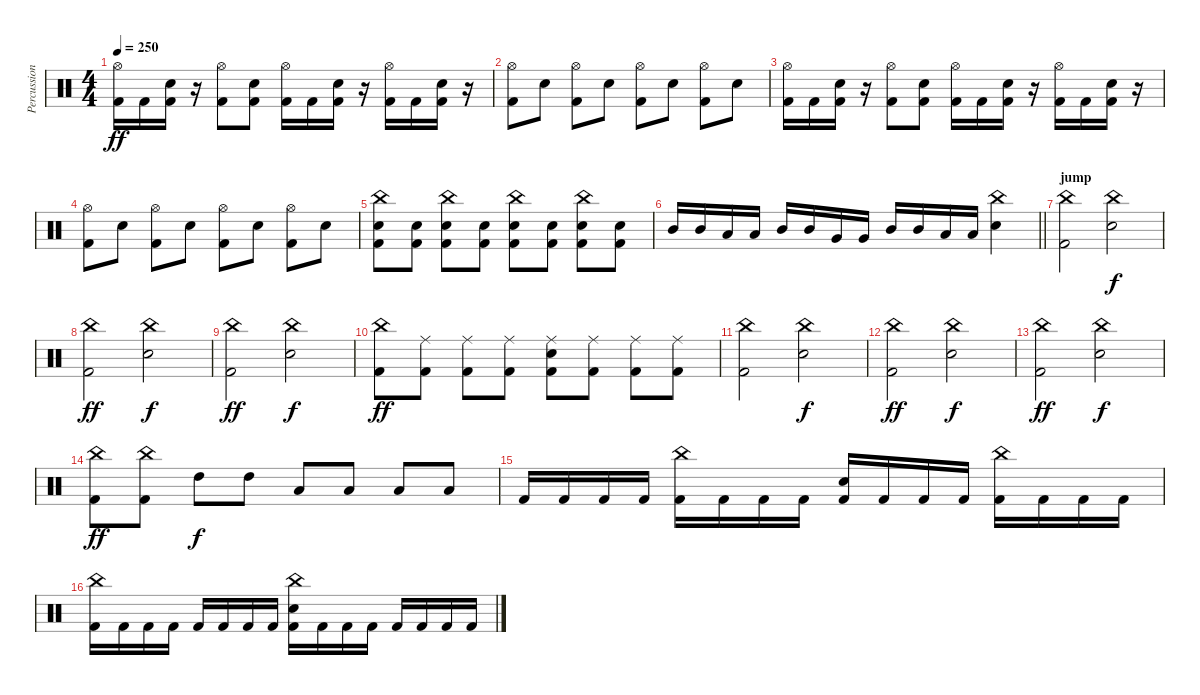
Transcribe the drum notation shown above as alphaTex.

\track ("Percussions" "Percussion") {instrument percussion}
\staff {score}
\articulation defaults
\ts (4 4)
\tempo 250
\clef neutral
\ks c
("Hi-Hat (open)" "Kick (hit) 2").16{dy ff} "Kick (hit) 2".16 ("Electric Snare (hit)" "Kick (hit) 2").16 r.16 ("Hi-Hat (open)" "Kick (hit) 2").8 ("Electric Snare (hit)" "Kick (hit) 2").8 ("Hi-Hat (open)" "Kick (hit) 2").16 "Kick (hit) 2".16 ("Electric Snare (hit)" "Kick (hit) 2").16 r.16 ("Hi-Hat (open)" "Kick (hit) 2").16 "Kick (hit) 2".16 ("Electric Snare (hit)" "Kick (hit) 2").16 r.16 |
("Hi-Hat (open)" "Kick (hit) 2").8 "Electric Snare (hit)".8 ("Hi-Hat (open)" "Kick (hit) 2").8 "Electric Snare (hit)".8 ("Hi-Hat (open)" "Kick (hit) 2").8 "Electric Snare (hit)".8 ("Hi-Hat (open)" "Kick (hit) 2").8 "Electric Snare (hit)".8 |
("Hi-Hat (open)" "Kick (hit) 2").16 "Kick (hit) 2".16 ("Electric Snare (hit)" "Kick (hit) 2").16 r.16 ("Hi-Hat (open)" "Kick (hit) 2").8 ("Electric Snare (hit)" "Kick (hit) 2").8 ("Hi-Hat (open)" "Kick (hit) 2").16 "Kick (hit) 2".16 ("Electric Snare (hit)" "Kick (hit) 2").16 r.16 ("Hi-Hat (open)" "Kick (hit) 2").16 "Kick (hit) 2".16 ("Electric Snare (hit)" "Kick (hit) 2").16 r.16 |
("Hi-Hat (open)" "Kick (hit) 2").8 "Electric Snare (hit)".8 ("Hi-Hat (open)" "Kick (hit) 2").8 "Electric Snare (hit)".8 ("Hi-Hat (open)" "Kick (hit) 2").8 "Electric Snare (hit)".8 ("Hi-Hat (open)" "Kick (hit) 2").8 "Electric Snare (hit)".8 |
("China (hit)" "Electric Snare (hit)" "Kick (hit) 2").8 ("Electric Snare (hit)" "Kick (hit) 2").8 ("China (hit)" "Electric Snare (hit)" "Kick (hit) 2").8 ("Electric Snare (hit)" "Kick (hit) 2").8 ("China (hit)" "Electric Snare (hit)" "Kick (hit) 2").8 ("Electric Snare (hit)" "Kick (hit) 2").8 ("China (hit)" "Electric Snare (hit)" "Kick (hit) 2").8 ("Electric Snare (hit)" "Kick (hit) 2").8 |
\barLineRight lightlight "Mid Tom (hit)".16 "Mid Tom (hit)".16 "Low Tom (hit)".16 "Low Tom (hit)".16 "Mid Tom (hit)".16 "Mid Tom (hit)".16 "Very Low Tom (hit)".16 "Very Low Tom (hit)".16 "Mid Tom (hit)".16 "Mid Tom (hit)".16 "Low Floor Tom (hit)".16 "Low Floor Tom (hit)".16
("China (hit)" "Electric Snare (hit)").4 |
\section ("" "jump")
("China (hit)" "Kick (hit) 2").2 ("China (hit)" "Electric Snare (hit)").2{dy f} |
("China (hit)" "Kick (hit) 2").2{dy ff} ("China (hit)" "Electric Snare (hit)").2{dy f} |
("China (hit)" "Kick (hit) 2").2{dy ff} ("China (hit)" "Electric Snare (hit)").2{dy f} |
("China (hit)" "Kick (hit) 2").8{dy ff} ("Ride (middle)" "Kick (hit) 2").8 ("Ride (middle)" "Kick (hit) 2").8 ("Ride (middle)" "Kick (hit) 2").8 ("Ride (middle)" "Electric Snare (hit)" "Kick (hit) 2").8 ("Ride (middle)" "Kick (hit) 2").8 ("Ride (middle)" "Kick (hit) 2").8 ("Ride (middle)" "Kick (hit) 2").8 |
("China (hit)" "Kick (hit) 2").2 ("China (hit)" "Electric Snare (hit)").2{dy f} |
("China (hit)" "Kick (hit) 2").2{dy ff} ("China (hit)" "Electric Snare (hit)").2{dy f} |
("China (hit)" "Kick (hit) 2").2{dy ff} ("China (hit)" "Electric Snare (hit)").2{dy f} |
("China (hit)" "Kick (hit) 2").8{dy ff} ("China (hit)" "Kick (hit) 2").8 "High Tom (hit)".8{dy f} "High Tom (hit)".8 "Low Tom (hit)".8 "Low Tom (hit)".8 "Low Floor Tom (hit)".8 "Low Floor Tom (hit)".8 |
"Kick (hit) 2".16 "Kick (hit) 2".16 "Kick (hit) 2".16 "Kick (hit) 2".16 ("China (hit)" "Kick (hit) 2").16 "Kick (hit) 2".16 "Kick (hit) 2".16 "Kick (hit) 2".16 ("Electric Snare (hit)" "Kick (hit) 2").16 "Kick (hit) 2".16 "Kick (hit) 2".16 "Kick (hit) 2".16 ("China (hit)" "Kick (hit) 2").16 "Kick (hit) 2".16 "Kick (hit) 2".16 "Kick (hit) 2".16 |
("China (hit)" "Kick (hit) 2").16 "Kick (hit) 2".16 "Kick (hit) 2".16 "Kick (hit) 2".16 "Kick (hit) 2".16 "Kick (hit) 2".16 "Kick (hit) 2".16 "Kick (hit) 2".16 ("China (hit)" "Electric Snare (hit)" "Kick (hit) 2").16 "Kick (hit) 2".16 "Kick (hit) 2".16 "Kick (hit) 2".16 "Kick (hit) 2".16 "Kick (hit) 2".16 "Kick (hit) 2".16 "Kick (hit) 2".16
